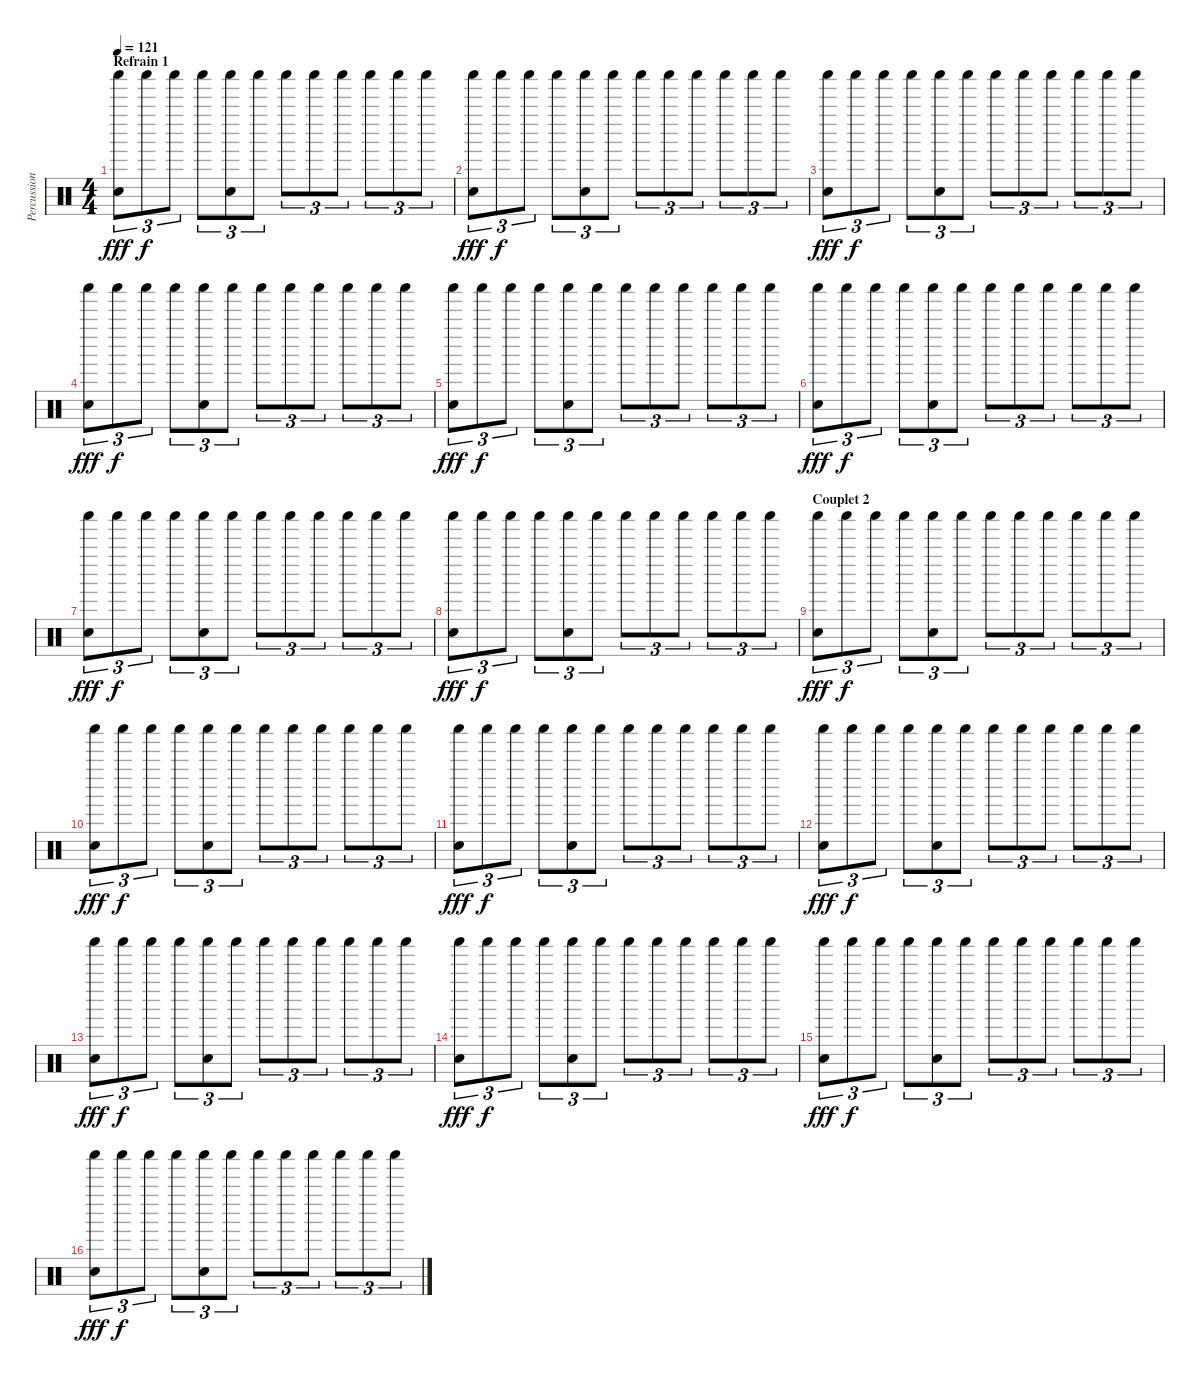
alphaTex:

\track ("Percussions" "Percussion") {instrument percussion}
\staff {score}
\articulation defaults
\ts (4 4)
\section ("" "Refrain 1")
\tempo 121
\clef neutral
\ks c
("Shaker (hit)" "Electric Snare (hit)").8{tu (3 2) dy fff} "Shaker (hit)".8{tu (3 2) dy f} "Shaker (hit)".8{tu (3 2)} "Shaker (hit)".8{tu (3 2)} ("Shaker (hit)" "Electric Snare (hit)").8{tu (3 2)} "Shaker (hit)".8{tu (3 2)} "Shaker (hit)".8{tu (3 2)} "Shaker (hit)".8{tu (3 2)} "Shaker (hit)".8{tu (3 2)} "Shaker (hit)".8{tu (3 2)} "Shaker (hit)".8{tu (3 2)} "Shaker (hit)".8{tu (3 2)} |
("Shaker (hit)" "Electric Snare (hit)").8{tu (3 2) dy fff} "Shaker (hit)".8{tu (3 2) dy f} "Shaker (hit)".8{tu (3 2)} "Shaker (hit)".8{tu (3 2)} ("Shaker (hit)" "Electric Snare (hit)").8{tu (3 2)} "Shaker (hit)".8{tu (3 2)} "Shaker (hit)".8{tu (3 2)} "Shaker (hit)".8{tu (3 2)} "Shaker (hit)".8{tu (3 2)} "Shaker (hit)".8{tu (3 2)} "Shaker (hit)".8{tu (3 2)} "Shaker (hit)".8{tu (3 2)} |
("Shaker (hit)" "Electric Snare (hit)").8{tu (3 2) dy fff} "Shaker (hit)".8{tu (3 2) dy f} "Shaker (hit)".8{tu (3 2)} "Shaker (hit)".8{tu (3 2)} ("Shaker (hit)" "Electric Snare (hit)").8{tu (3 2)} "Shaker (hit)".8{tu (3 2)} "Shaker (hit)".8{tu (3 2)} "Shaker (hit)".8{tu (3 2)} "Shaker (hit)".8{tu (3 2)} "Shaker (hit)".8{tu (3 2)} "Shaker (hit)".8{tu (3 2)} "Shaker (hit)".8{tu (3 2)} |
("Shaker (hit)" "Electric Snare (hit)").8{tu (3 2) dy fff} "Shaker (hit)".8{tu (3 2) dy f} "Shaker (hit)".8{tu (3 2)} "Shaker (hit)".8{tu (3 2)} ("Shaker (hit)" "Electric Snare (hit)").8{tu (3 2)} "Shaker (hit)".8{tu (3 2)} "Shaker (hit)".8{tu (3 2)} "Shaker (hit)".8{tu (3 2)} "Shaker (hit)".8{tu (3 2)} "Shaker (hit)".8{tu (3 2)} "Shaker (hit)".8{tu (3 2)} "Shaker (hit)".8{tu (3 2)} |
("Shaker (hit)" "Electric Snare (hit)").8{tu (3 2) dy fff} "Shaker (hit)".8{tu (3 2) dy f} "Shaker (hit)".8{tu (3 2)} "Shaker (hit)".8{tu (3 2)} ("Shaker (hit)" "Electric Snare (hit)").8{tu (3 2)} "Shaker (hit)".8{tu (3 2)} "Shaker (hit)".8{tu (3 2)} "Shaker (hit)".8{tu (3 2)} "Shaker (hit)".8{tu (3 2)} "Shaker (hit)".8{tu (3 2)} "Shaker (hit)".8{tu (3 2)} "Shaker (hit)".8{tu (3 2)} |
("Shaker (hit)" "Electric Snare (hit)").8{tu (3 2) dy fff} "Shaker (hit)".8{tu (3 2) dy f} "Shaker (hit)".8{tu (3 2)} "Shaker (hit)".8{tu (3 2)} ("Shaker (hit)" "Electric Snare (hit)").8{tu (3 2)} "Shaker (hit)".8{tu (3 2)} "Shaker (hit)".8{tu (3 2)} "Shaker (hit)".8{tu (3 2)} "Shaker (hit)".8{tu (3 2)} "Shaker (hit)".8{tu (3 2)} "Shaker (hit)".8{tu (3 2)} "Shaker (hit)".8{tu (3 2)} |
("Shaker (hit)" "Electric Snare (hit)").8{tu (3 2) dy fff} "Shaker (hit)".8{tu (3 2) dy f} "Shaker (hit)".8{tu (3 2)} "Shaker (hit)".8{tu (3 2)} ("Shaker (hit)" "Electric Snare (hit)").8{tu (3 2)} "Shaker (hit)".8{tu (3 2)} "Shaker (hit)".8{tu (3 2)} "Shaker (hit)".8{tu (3 2)} "Shaker (hit)".8{tu (3 2)} "Shaker (hit)".8{tu (3 2)} "Shaker (hit)".8{tu (3 2)} "Shaker (hit)".8{tu (3 2)} |
("Shaker (hit)" "Electric Snare (hit)").8{tu (3 2) dy fff} "Shaker (hit)".8{tu (3 2) dy f} "Shaker (hit)".8{tu (3 2)} "Shaker (hit)".8{tu (3 2)} ("Shaker (hit)" "Electric Snare (hit)").8{tu (3 2)} "Shaker (hit)".8{tu (3 2)} "Shaker (hit)".8{tu (3 2)} "Shaker (hit)".8{tu (3 2)} "Shaker (hit)".8{tu (3 2)} "Shaker (hit)".8{tu (3 2)} "Shaker (hit)".8{tu (3 2)} "Shaker (hit)".8{tu (3 2)} |
\section ("" "Couplet 2")
("Shaker (hit)" "Electric Snare (hit)").8{tu (3 2) dy fff} "Shaker (hit)".8{tu (3 2) dy f} "Shaker (hit)".8{tu (3 2)} "Shaker (hit)".8{tu (3 2)} ("Shaker (hit)" "Electric Snare (hit)").8{tu (3 2)} "Shaker (hit)".8{tu (3 2)} "Shaker (hit)".8{tu (3 2)} "Shaker (hit)".8{tu (3 2)} "Shaker (hit)".8{tu (3 2)} "Shaker (hit)".8{tu (3 2)} "Shaker (hit)".8{tu (3 2)} "Shaker (hit)".8{tu (3 2)} |
("Shaker (hit)" "Electric Snare (hit)").8{tu (3 2) dy fff} "Shaker (hit)".8{tu (3 2) dy f} "Shaker (hit)".8{tu (3 2)} "Shaker (hit)".8{tu (3 2)} ("Shaker (hit)" "Electric Snare (hit)").8{tu (3 2)} "Shaker (hit)".8{tu (3 2)} "Shaker (hit)".8{tu (3 2)} "Shaker (hit)".8{tu (3 2)} "Shaker (hit)".8{tu (3 2)} "Shaker (hit)".8{tu (3 2)} "Shaker (hit)".8{tu (3 2)} "Shaker (hit)".8{tu (3 2)} |
("Shaker (hit)" "Electric Snare (hit)").8{tu (3 2) dy fff} "Shaker (hit)".8{tu (3 2) dy f} "Shaker (hit)".8{tu (3 2)} "Shaker (hit)".8{tu (3 2)} ("Shaker (hit)" "Electric Snare (hit)").8{tu (3 2)} "Shaker (hit)".8{tu (3 2)} "Shaker (hit)".8{tu (3 2)} "Shaker (hit)".8{tu (3 2)} "Shaker (hit)".8{tu (3 2)} "Shaker (hit)".8{tu (3 2)} "Shaker (hit)".8{tu (3 2)} "Shaker (hit)".8{tu (3 2)} |
("Shaker (hit)" "Electric Snare (hit)").8{tu (3 2) dy fff} "Shaker (hit)".8{tu (3 2) dy f} "Shaker (hit)".8{tu (3 2)} "Shaker (hit)".8{tu (3 2)} ("Shaker (hit)" "Electric Snare (hit)").8{tu (3 2)} "Shaker (hit)".8{tu (3 2)} "Shaker (hit)".8{tu (3 2)} "Shaker (hit)".8{tu (3 2)} "Shaker (hit)".8{tu (3 2)} "Shaker (hit)".8{tu (3 2)} "Shaker (hit)".8{tu (3 2)} "Shaker (hit)".8{tu (3 2)} |
("Shaker (hit)" "Electric Snare (hit)").8{tu (3 2) dy fff} "Shaker (hit)".8{tu (3 2) dy f} "Shaker (hit)".8{tu (3 2)} "Shaker (hit)".8{tu (3 2)} ("Shaker (hit)" "Electric Snare (hit)").8{tu (3 2)} "Shaker (hit)".8{tu (3 2)} "Shaker (hit)".8{tu (3 2)} "Shaker (hit)".8{tu (3 2)} "Shaker (hit)".8{tu (3 2)} "Shaker (hit)".8{tu (3 2)} "Shaker (hit)".8{tu (3 2)} "Shaker (hit)".8{tu (3 2)} |
("Shaker (hit)" "Electric Snare (hit)").8{tu (3 2) dy fff} "Shaker (hit)".8{tu (3 2) dy f} "Shaker (hit)".8{tu (3 2)} "Shaker (hit)".8{tu (3 2)} ("Shaker (hit)" "Electric Snare (hit)").8{tu (3 2)} "Shaker (hit)".8{tu (3 2)} "Shaker (hit)".8{tu (3 2)} "Shaker (hit)".8{tu (3 2)} "Shaker (hit)".8{tu (3 2)} "Shaker (hit)".8{tu (3 2)} "Shaker (hit)".8{tu (3 2)} "Shaker (hit)".8{tu (3 2)} |
("Shaker (hit)" "Electric Snare (hit)").8{tu (3 2) dy fff} "Shaker (hit)".8{tu (3 2) dy f} "Shaker (hit)".8{tu (3 2)} "Shaker (hit)".8{tu (3 2)} ("Shaker (hit)" "Electric Snare (hit)").8{tu (3 2)} "Shaker (hit)".8{tu (3 2)} "Shaker (hit)".8{tu (3 2)} "Shaker (hit)".8{tu (3 2)} "Shaker (hit)".8{tu (3 2)} "Shaker (hit)".8{tu (3 2)} "Shaker (hit)".8{tu (3 2)} "Shaker (hit)".8{tu (3 2)} |
("Shaker (hit)" "Electric Snare (hit)").8{tu (3 2) dy fff} "Shaker (hit)".8{tu (3 2) dy f} "Shaker (hit)".8{tu (3 2)} "Shaker (hit)".8{tu (3 2)} ("Shaker (hit)" "Electric Snare (hit)").8{tu (3 2)} "Shaker (hit)".8{tu (3 2)} "Shaker (hit)".8{tu (3 2)} "Shaker (hit)".8{tu (3 2)} "Shaker (hit)".8{tu (3 2)} "Shaker (hit)".8{tu (3 2)} "Shaker (hit)".8{tu (3 2)} "Shaker (hit)".8{tu (3 2)}
